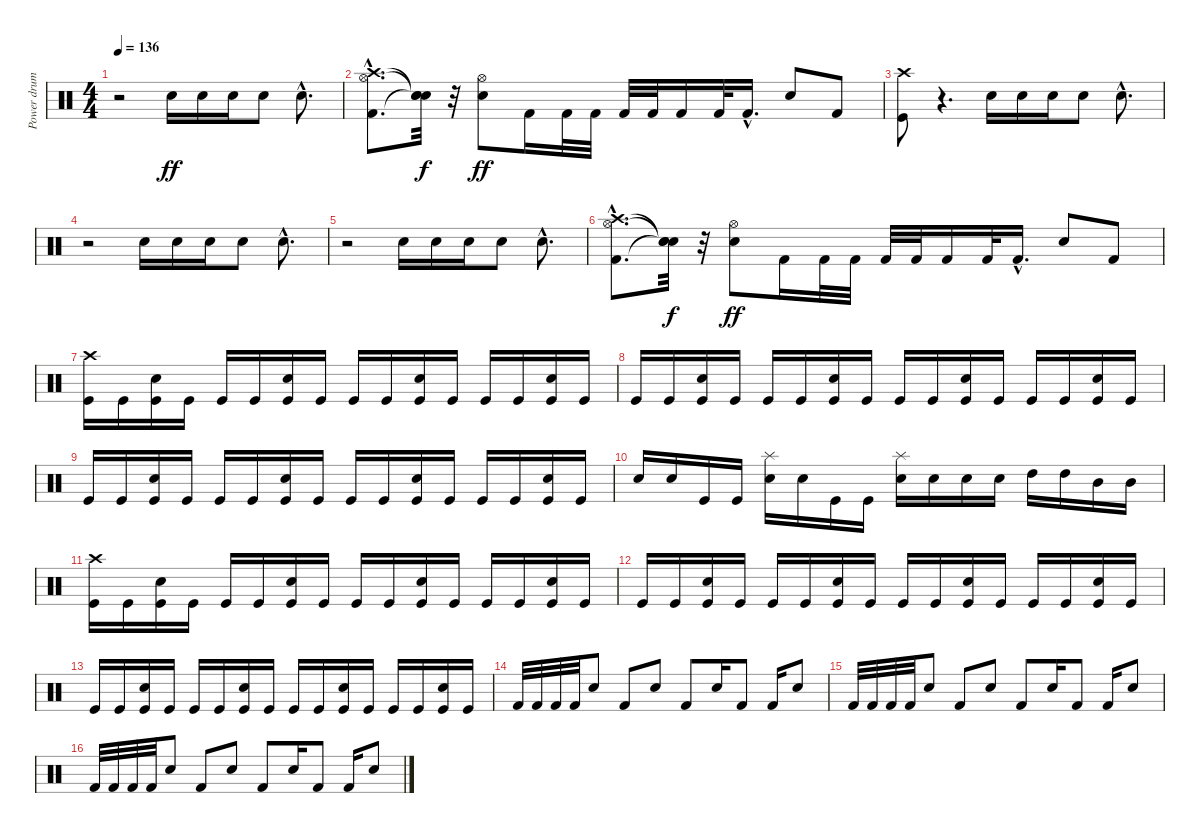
\track ("Power drums" "Power drum") {instrument percussion}
\staff {score}
\articulation defaults
\ts (4 4)
\tempo 136
\clef neutral
\ks c
r.2{dy ff} "Snare (hit) 2".16 "Snare (hit) 2".16 "Snare (hit) 2".16 "Snare (hit) 2".8 "Snare (hit) 2"{hac}.8{d} |
("Kick (hit) 2"{hac} "Hi-Hat (open)"{hac} "Crash high (hit)"{hac}).8{d} ("Snare (hit)"{t} "Snare (hit)"{t} "Snare (hit)"{t}).32{dy f} r.32 ("Snare (hit) 2" "Hi-Hat (open)").8{dy ff} "Kick (hit) 2".16 "Kick (hit) 2".32 "Kick (hit) 2".32 "Kick (hit) 2".32 "Kick (hit) 2".32 "Kick (hit) 2".16 "Kick (hit) 2".32 "Kick (hit) 2"{hac}.16{d} "Snare (hit) 2".8 "Kick (hit) 2".8 |
("Kick (hit)" "Crash high (hit)").8 r.4{d} "Snare (hit) 2".16 "Snare (hit) 2".16 "Snare (hit) 2".16 "Snare (hit) 2".8 "Snare (hit) 2"{hac}.8{d} |
r.2 "Snare (hit) 2".16 "Snare (hit) 2".16 "Snare (hit) 2".16 "Snare (hit) 2".8 "Snare (hit) 2"{hac}.8{d} |
r.2 "Snare (hit) 2".16 "Snare (hit) 2".16 "Snare (hit) 2".16 "Snare (hit) 2".8 "Snare (hit) 2"{hac}.8{d} |
("Kick (hit) 2"{hac} "Hi-Hat (open)"{hac} "Crash high (hit)"{hac}).8{d} ("Snare (hit)"{t} "Snare (hit)"{t} "Snare (hit)"{t}).32{dy f} r.32 ("Snare (hit) 2" "Hi-Hat (open)").8{dy ff} "Kick (hit) 2".16 "Kick (hit) 2".32 "Kick (hit) 2".32 "Kick (hit) 2".32 "Kick (hit) 2".32 "Kick (hit) 2".16 "Kick (hit) 2".32 "Kick (hit) 2"{hac}.16{d} "Snare (hit) 2".8 "Kick (hit) 2".8 |
("Kick (hit)" "Crash high (hit)").16 "Kick (hit)".16 ("Kick (hit)" "Snare (hit) 2").16 "Kick (hit)".16 "Kick (hit)".16 "Kick (hit)".16 ("Kick (hit)" "Snare (hit) 2").16 "Kick (hit)".16 "Kick (hit)".16 "Kick (hit)".16 ("Kick (hit)" "Snare (hit) 2").16 "Kick (hit)".16 "Kick (hit)".16 "Kick (hit)".16 ("Kick (hit)" "Snare (hit) 2").16 "Kick (hit)".16 |
"Kick (hit)".16 "Kick (hit)".16 ("Kick (hit)" "Snare (hit) 2").16 "Kick (hit)".16 "Kick (hit)".16 "Kick (hit)".16 ("Kick (hit)" "Snare (hit) 2").16 "Kick (hit)".16 "Kick (hit)".16 "Kick (hit)".16 ("Kick (hit)" "Snare (hit) 2").16 "Kick (hit)".16 "Kick (hit)".16 "Kick (hit)".16 ("Kick (hit)" "Snare (hit) 2").16 "Kick (hit)".16 |
"Kick (hit)".16 "Kick (hit)".16 ("Kick (hit)" "Snare (hit) 2").16 "Kick (hit)".16 "Kick (hit)".16 "Kick (hit)".16 ("Kick (hit)" "Snare (hit) 2").16 "Kick (hit)".16 "Kick (hit)".16 "Kick (hit)".16 ("Kick (hit)" "Snare (hit) 2").16 "Kick (hit)".16 "Kick (hit)".16 "Kick (hit)".16 ("Kick (hit)" "Snare (hit) 2").16 "Kick (hit)".16 |
"Snare (hit) 2".16 "Snare (hit) 2".16 "Kick (hit)".16 "Kick (hit)".16 ("Snare (hit) 2" "Splash (hit)").16 "Snare (hit) 2".16 "Kick (hit)".16 "Kick (hit)".16 ("Snare (hit) 2" "Splash (hit)").16 "Snare (hit) 2".16 "Snare (hit) 2".16 "Snare (hit) 2".16 "High Tom (hit)".16 "High Tom (hit)".16 "Mid Tom (hit)".16 "Mid Tom (hit)".16 |
("Kick (hit)" "Crash high (hit)").16 "Kick (hit)".16 ("Kick (hit)" "Snare (hit) 2").16 "Kick (hit)".16 "Kick (hit)".16 "Kick (hit)".16 ("Kick (hit)" "Snare (hit) 2").16 "Kick (hit)".16 "Kick (hit)".16 "Kick (hit)".16 ("Kick (hit)" "Snare (hit) 2").16 "Kick (hit)".16 "Kick (hit)".16 "Kick (hit)".16 ("Kick (hit)" "Snare (hit) 2").16 "Kick (hit)".16 |
"Kick (hit)".16 "Kick (hit)".16 ("Kick (hit)" "Snare (hit) 2").16 "Kick (hit)".16 "Kick (hit)".16 "Kick (hit)".16 ("Kick (hit)" "Snare (hit) 2").16 "Kick (hit)".16 "Kick (hit)".16 "Kick (hit)".16 ("Kick (hit)" "Snare (hit) 2").16 "Kick (hit)".16 "Kick (hit)".16 "Kick (hit)".16 ("Kick (hit)" "Snare (hit) 2").16 "Kick (hit)".16 |
"Kick (hit)".16 "Kick (hit)".16 ("Kick (hit)" "Snare (hit) 2").16 "Kick (hit)".16 "Kick (hit)".16 "Kick (hit)".16 ("Kick (hit)" "Snare (hit) 2").16 "Kick (hit)".16 "Kick (hit)".16 "Kick (hit)".16 ("Kick (hit)" "Snare (hit) 2").16 "Kick (hit)".16 "Kick (hit)".16 "Kick (hit)".16 ("Kick (hit)" "Snare (hit) 2").16 "Kick (hit)".16 |
"Kick (hit) 2".32 "Kick (hit) 2".32 "Kick (hit) 2".32 "Kick (hit) 2".32 "Snare (hit) 2".8 "Kick (hit) 2".8 "Snare (hit) 2".8 "Kick (hit) 2".8 "Snare (hit) 2".16 "Kick (hit) 2".8 "Kick (hit) 2".16 "Snare (hit) 2".8 |
"Kick (hit) 2".32 "Kick (hit) 2".32 "Kick (hit) 2".32 "Kick (hit) 2".32 "Snare (hit) 2".8 "Kick (hit) 2".8 "Snare (hit) 2".8 "Kick (hit) 2".8 "Snare (hit) 2".16 "Kick (hit) 2".8 "Kick (hit) 2".16 "Snare (hit) 2".8 |
"Kick (hit) 2".32 "Kick (hit) 2".32 "Kick (hit) 2".32 "Kick (hit) 2".32 "Snare (hit) 2".8 "Kick (hit) 2".8 "Snare (hit) 2".8 "Kick (hit) 2".8 "Snare (hit) 2".16 "Kick (hit) 2".8 "Kick (hit) 2".16 "Snare (hit) 2".8
